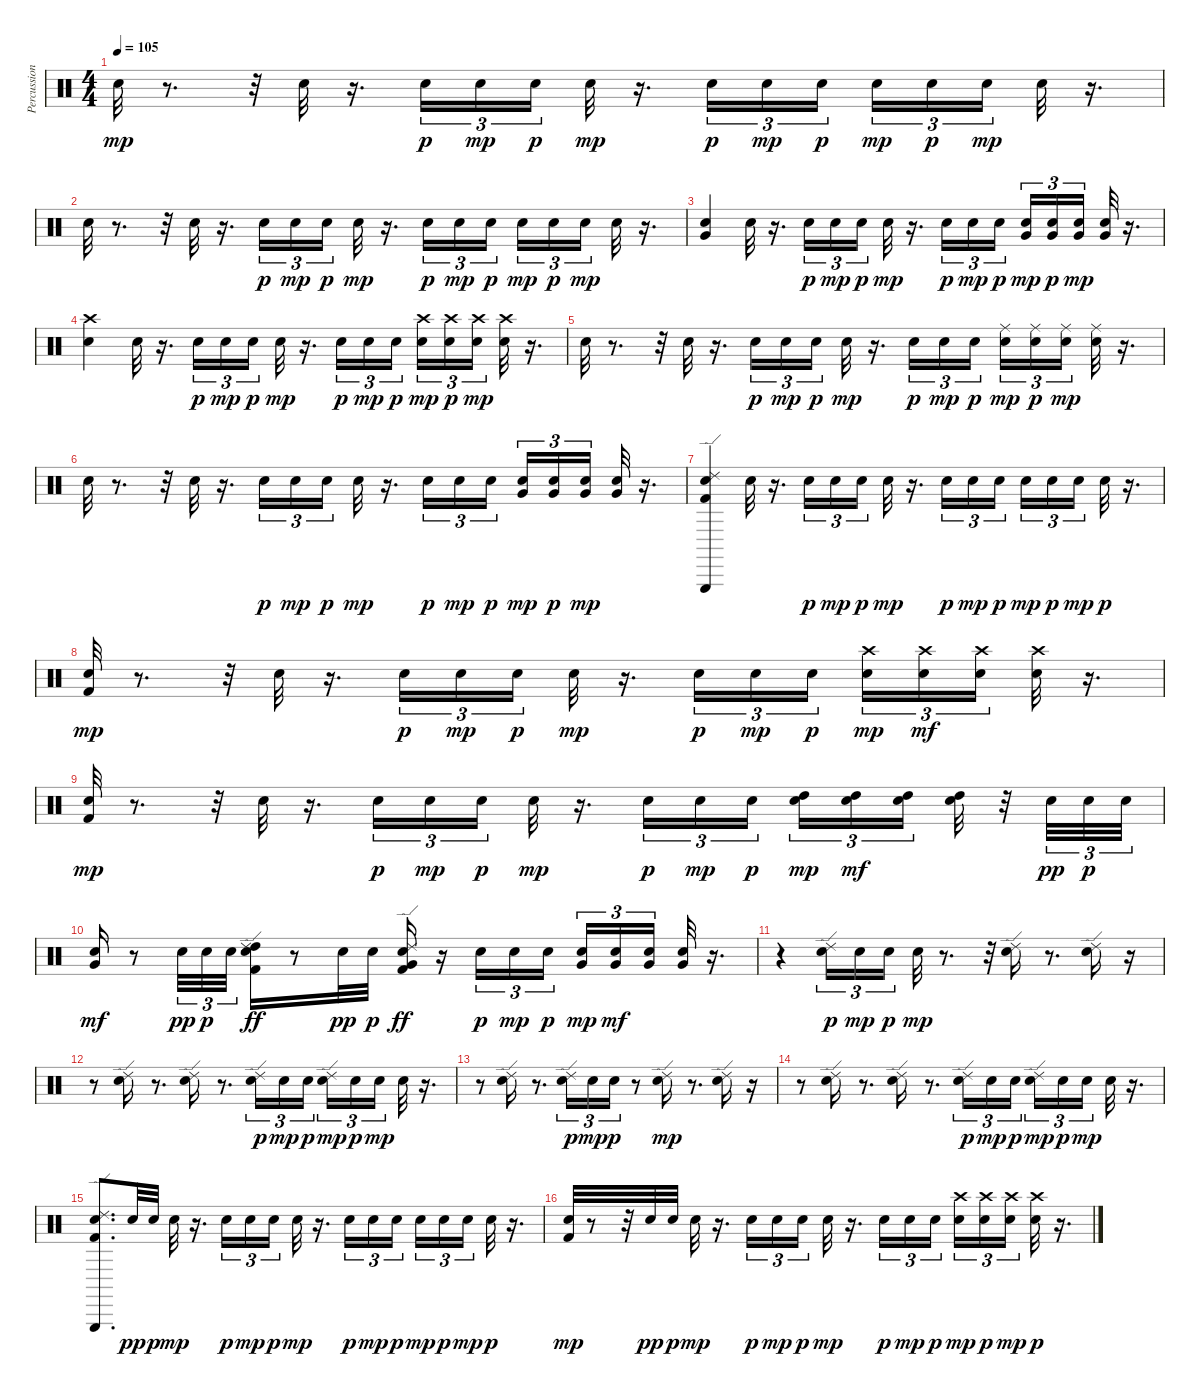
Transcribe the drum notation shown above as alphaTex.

\track ("Percussion" "Percussion") {instrument percussion}
\staff {score}
\articulation defaults
\ts (4 4)
\tempo 105
\clef neutral
\ks c "Snare (hit) 2".32{dy mp}
r.8{d} r.32 "Snare (hit) 2".32 r.16{d} "Snare (hit) 2".16{tu (3 2) dy p} "Snare (hit) 2".16{tu (3 2) dy mp} "Snare (hit) 2".16{tu (3 2) dy p} "Snare (hit) 2".32{dy mp} r.16{d} "Snare (hit) 2".16{tu (3 2) dy p} "Snare (hit) 2".16{tu (3 2) dy mp} "Snare (hit) 2".16{tu (3 2) dy p} "Snare (hit) 2".16{tu (3 2) dy mp} "Snare (hit) 2".16{tu (3 2) dy p} "Snare (hit) 2".16{tu (3 2) dy mp beam splitsecondary} "Snare (hit) 2".32 r.16{d} |
"Snare (hit) 2".32 r.8{d} r.32 "Snare (hit) 2".32 r.16{d} "Snare (hit) 2".16{tu (3 2) dy p} "Snare (hit) 2".16{tu (3 2) dy mp} "Snare (hit) 2".16{tu (3 2) dy p} "Snare (hit) 2".32{dy mp} r.16{d} "Snare (hit) 2".16{tu (3 2) dy p} "Snare (hit) 2".16{tu (3 2) dy mp} "Snare (hit) 2".16{tu (3 2) dy p} "Snare (hit) 2".16{tu (3 2) dy mp} "Snare (hit) 2".16{tu (3 2) dy p} "Snare (hit) 2".16{tu (3 2) dy mp beam splitsecondary} "Snare (hit) 2".32 r.16{d} |
("Very Low Tom (hit)" "Snare (hit) 2").4 "Snare (hit) 2".32 r.16{d} "Snare (hit) 2".16{tu (3 2) dy p} "Snare (hit) 2".16{tu (3 2) dy mp} "Snare (hit) 2".16{tu (3 2) dy p} "Snare (hit) 2".32{dy mp} r.16{d} "Snare (hit) 2".16{tu (3 2) dy p} "Snare (hit) 2".16{tu (3 2) dy mp} "Snare (hit) 2".16{tu (3 2) dy p} ("Very Low Tom (hit)" "Snare (hit) 2").16{tu (3 2) dy mp} ("Very Low Tom (hit)" "Snare (hit) 2").16{tu (3 2) dy p} ("Very Low Tom (hit)" "Snare (hit) 2").16{tu (3 2) dy mp beam splitsecondary} ("Very Low Tom (hit)" "Snare (hit) 2").32 r.16{d} |
("Crash high (hit)" "Snare (hit) 2").4 "Snare (hit) 2".32 r.16{d} "Snare (hit) 2".16{tu (3 2) dy p} "Snare (hit) 2".16{tu (3 2) dy mp} "Snare (hit) 2".16{tu (3 2) dy p} "Snare (hit) 2".32{dy mp} r.16{d} "Snare (hit) 2".16{tu (3 2) dy p} "Snare (hit) 2".16{tu (3 2) dy mp} "Snare (hit) 2".16{tu (3 2) dy p} ("Crash high (hit)" "Snare (hit) 2").16{tu (3 2) dy mp} ("Crash high (hit)" "Snare (hit) 2").16{tu (3 2) dy p} ("Crash high (hit)" "Snare (hit) 2").16{tu (3 2) dy mp beam splitsecondary} ("Crash high (hit)" "Snare (hit) 2").32 r.16{d} |
"Snare (hit) 2".32 r.8{d} r.32 "Snare (hit) 2".32 r.16{d} "Snare (hit) 2".16{tu (3 2) dy p} "Snare (hit) 2".16{tu (3 2) dy mp} "Snare (hit) 2".16{tu (3 2) dy p} "Snare (hit) 2".32{dy mp} r.16{d} "Snare (hit) 2".16{tu (3 2) dy p} "Snare (hit) 2".16{tu (3 2) dy mp} "Snare (hit) 2".16{tu (3 2) dy p} ("Ride (middle)" "Snare (hit) 2").16{tu (3 2) dy mp} ("Ride (middle)" "Snare (hit) 2").16{tu (3 2) dy p} ("Ride (middle)" "Snare (hit) 2").16{tu (3 2) dy mp beam splitsecondary} ("Ride (middle)" "Snare (hit) 2").32 r.16{d} |
"Snare (hit) 2".32 r.8{d} r.32 "Snare (hit) 2".32 r.16{d} "Snare (hit) 2".16{tu (3 2) dy p} "Snare (hit) 2".16{tu (3 2) dy mp} "Snare (hit) 2".16{tu (3 2) dy p} "Snare (hit) 2".32{dy mp} r.16{d} "Snare (hit) 2".16{tu (3 2) dy p} "Snare (hit) 2".16{tu (3 2) dy mp} "Snare (hit) 2".16{tu (3 2) dy p} ("Very Low Tom (hit)" "Snare (hit) 2").16{tu (3 2) dy mp} ("Very Low Tom (hit)" "Snare (hit) 2").16{tu (3 2) dy p} ("Very Low Tom (hit)" "Snare (hit) 2").16{tu (3 2) dy mp beam splitsecondary} ("Very Low Tom (hit)" "Snare (hit) 2").32 r.16{d} |
("Triangle (hit)" "Ride (edge) 2" "Snare (hit) 2" "Kick (hit) 2").4 "Snare (hit) 2".32 r.16{d} "Snare (hit) 2".16{tu (3 2) dy p} "Snare (hit) 2".16{tu (3 2) dy mp} "Snare (hit) 2".16{tu (3 2) dy p} "Snare (hit) 2".32{dy mp} r.16{d} "Snare (hit) 2".16{tu (3 2) dy p} "Snare (hit) 2".16{tu (3 2) dy mp} "Snare (hit) 2".16{tu (3 2) dy p} "Snare (hit) 2".16{tu (3 2) dy mp} "Snare (hit) 2".16{tu (3 2) dy p} "Snare (hit) 2".16{tu (3 2) dy mp beam splitsecondary} "Snare (hit) 2".32{dy p} r.16{d} |
("Kick (hit) 2" "Snare (hit) 2").32{dy mp} r.8{d} r.32 "Snare (hit) 2".32 r.16{d} "Snare (hit) 2".16{tu (3 2) dy p} "Snare (hit) 2".16{tu (3 2) dy mp} "Snare (hit) 2".16{tu (3 2) dy p} "Snare (hit) 2".32{dy mp} r.16{d} "Snare (hit) 2".16{tu (3 2) dy p} "Snare (hit) 2".16{tu (3 2) dy mp} "Snare (hit) 2".16{tu (3 2) dy p} ("Snare (hit) 2" "Crash high (hit)").16{tu (3 2) dy mp} ("Snare (hit) 2" "Crash high (hit)").16{tu (3 2) dy mf} ("Snare (hit) 2" "Crash high (hit)").16{tu (3 2) beam splitsecondary} ("Snare (hit) 2" "Crash high (hit)").32 r.16{d} |
("Snare (hit) 2" "Kick (hit) 2").32{dy mp} r.8{d} r.32 "Snare (hit) 2".32 r.16{d} "Snare (hit) 2".16{tu (3 2) dy p} "Snare (hit) 2".16{tu (3 2) dy mp} "Snare (hit) 2".16{tu (3 2) dy p} "Snare (hit) 2".32{dy mp} r.16{d} "Snare (hit) 2".16{tu (3 2) dy p} "Snare (hit) 2".16{tu (3 2) dy mp} "Snare (hit) 2".16{tu (3 2) dy p} ("Snare (hit) 2" "High Tom (hit)").16{tu (3 2) dy mp} ("Snare (hit) 2" "High Tom (hit)").16{tu (3 2) dy mf} ("Snare (hit) 2" "High Tom (hit)").16{tu (3 2) beam splitsecondary} ("Snare (hit) 2" "High Tom (hit)").32 r.32 "Snare (hit) 2".32{tu (3 2) dy pp} "Snare (hit) 2".32{tu (3 2) dy p} "Snare (hit) 2".32{tu (3 2)} |
("Snare (hit) 2" "Very Low Tom (hit)").16{dy mf} r.8 "Snare (hit) 2".32{tu (3 2) dy pp} "Snare (hit) 2".32{tu (3 2) dy p} "Snare (hit) 2".32{tu (3 2)} ("Kick (hit) 2" "Snare (hit) 2" "High Tom (hit)" "Ride (edge) 2").16{dy ff} r.8 "Snare (hit) 2".32{dy pp} "Snare (hit) 2".32{dy p} ("Snare (hit) 2" "Kick (hit) 2" "Very Low Tom (hit)" "Ride (edge) 2").16{dy ff} r.16 "Snare (hit) 2".16{tu (3 2) dy p} "Snare (hit) 2".16{tu (3 2) dy mp} "Snare (hit) 2".16{tu (3 2) dy p} ("Snare (hit) 2" "Very Low Tom (hit)").16{tu (3 2) dy mp} ("Snare (hit) 2" "Very Low Tom (hit)").16{tu (3 2) dy mf} ("Snare (hit) 2" "Very Low Tom (hit)").16{tu (3 2) beam splitsecondary} ("Snare (hit) 2" "Very Low Tom (hit)").32 r.16{d} |
r.4 ("Ride (edge) 2" "Snare (hit) 2").16{tu (3 2) dy p} "Snare (hit) 2".16{tu (3 2) dy mp} "Snare (hit) 2".16{tu (3 2) dy p beam splitsecondary} "Snare (hit) 2".32{dy mp} r.8{d} r.32 ("Ride (edge) 2" "Snare (hit) 2").16 r.8{d} ("Ride (edge) 2" "Snare (hit) 2").16 r.16 |
r.8 ("Ride (edge) 2" "Snare (hit) 2").16 r.8{d} ("Ride (edge) 2" "Snare (hit) 2").16 r.8{d} ("Snare (hit) 2" "Ride (edge) 2").16{tu (3 2) dy p} "Snare (hit) 2".16{tu (3 2) dy mp} "Snare (hit) 2".16{tu (3 2) dy p} ("Snare (hit) 2" "Ride (edge) 2").16{tu (3 2) dy mp} "Snare (hit) 2".16{tu (3 2) dy p} "Snare (hit) 2".16{tu (3 2) dy mp beam splitsecondary} "Snare (hit) 2".32 r.16{d} |
r.8 ("Snare (hit) 2" "Ride (edge) 2").16 r.8{d} ("Snare (hit) 2" "Ride (edge) 2").16{tu (3 2) dy p} "Snare (hit) 2".16{tu (3 2) dy mp} "Snare (hit) 2".16{tu (3 2) dy p} r.8 ("Snare (hit) 2" "Ride (edge) 2").16{dy mp} r.8{d} ("Snare (hit) 2" "Ride (edge) 2").16 r.16 |
r.8 ("Snare (hit) 2" "Ride (edge) 2").16 r.8{d} ("Snare (hit) 2" "Ride (edge) 2").16 r.8{d} ("Snare (hit) 2" "Ride (edge) 2").16{tu (3 2) dy p} "Snare (hit) 2".16{tu (3 2) dy mp} "Snare (hit) 2".16{tu (3 2) dy p} ("Snare (hit) 2" "Ride (edge) 2").16{tu (3 2) dy mp} "Snare (hit) 2".16{tu (3 2) dy p} "Snare (hit) 2".16{tu (3 2) dy mp beam splitsecondary} "Snare (hit) 2".32 r.16{d} |
("Snare (hit) 2" "Kick (hit) 2" "Ride (edge) 2" "Triangle (hit)").8{d} "Snare (hit) 2".32{dy pp} "Snare (hit) 2".32{dy p} "Snare (hit) 2".32{dy mp} r.16{d} "Snare (hit) 2".16{tu (3 2) dy p} "Snare (hit) 2".16{tu (3 2) dy mp} "Snare (hit) 2".16{tu (3 2) dy p} "Snare (hit) 2".32{dy mp} r.16{d} "Snare (hit) 2".16{tu (3 2) dy p} "Snare (hit) 2".16{tu (3 2) dy mp} "Snare (hit) 2".16{tu (3 2) dy p} "Snare (hit) 2".16{tu (3 2) dy mp} "Snare (hit) 2".16{tu (3 2) dy p} "Snare (hit) 2".16{tu (3 2) dy mp beam splitsecondary} "Snare (hit) 2".32{dy p} r.16{d} |
("Kick (hit) 2" "Snare (hit) 2").32{dy mp} r.8 r.32 "Snare (hit) 2".32{dy pp} "Snare (hit) 2".32{dy p} "Snare (hit) 2".32{dy mp} r.16{d} "Snare (hit) 2".16{tu (3 2) dy p} "Snare (hit) 2".16{tu (3 2) dy mp} "Snare (hit) 2".16{tu (3 2) dy p} "Snare (hit) 2".32{dy mp} r.16{d} "Snare (hit) 2".16{tu (3 2) dy p} "Snare (hit) 2".16{tu (3 2) dy mp} "Snare (hit) 2".16{tu (3 2) dy p} ("Crash high (hit)" "Snare (hit) 2").16{tu (3 2) dy mp} ("Crash high (hit)" "Snare (hit) 2").16{tu (3 2) dy p} ("Crash high (hit)" "Snare (hit) 2").16{tu (3 2) dy mp beam splitsecondary} ("Crash high (hit)" "Snare (hit) 2").32{dy p} r.16{d}
